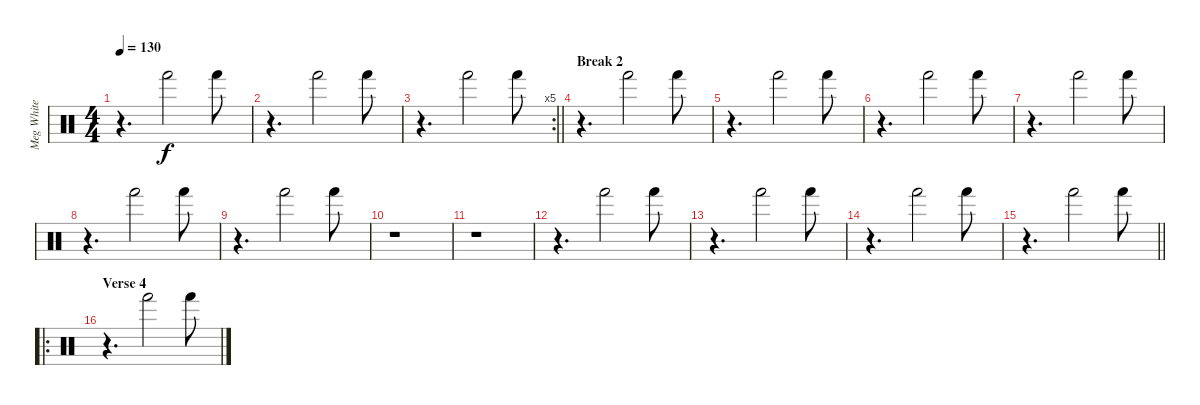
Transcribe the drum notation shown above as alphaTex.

\track ("Meg White" "Meg White") {instrument percussion}
\staff {score}
\articulation defaults
\ts (4 4)
\tempo 130
\clef neutral
\ks c
r.4{d dy f} "Hand (hit)".2 "Hand (hit)".8 |
r.4{d} "Hand (hit)".2 "Hand (hit)".8 |
\rc 5
\barLineRight lightlight
r.4{d} "Hand (hit)".2 "Hand (hit)".8 |
\section ("" "Break 2")
r.4{d} "Hand (hit)".2 "Hand (hit)".8 |
r.4{d} "Hand (hit)".2 "Hand (hit)".8 |
r.4{d} "Hand (hit)".2 "Hand (hit)".8 |
r.4{d} "Hand (hit)".2 "Hand (hit)".8 |
r.4{d} "Hand (hit)".2 "Hand (hit)".8 |
r.4{d} "Hand (hit)".2 "Hand (hit)".8 |
r.1 |
r.1 |
r.4{d} "Hand (hit)".2 "Hand (hit)".8 |
r.4{d} "Hand (hit)".2 "Hand (hit)".8 |
r.4{d} "Hand (hit)".2 "Hand (hit)".8 |
\barLineRight lightlight
r.4{d} "Hand (hit)".2 "Hand (hit)".8 |
\ro
\section ("" "Verse 4")
r.4{d} "Hand (hit)".2 "Hand (hit)".8
